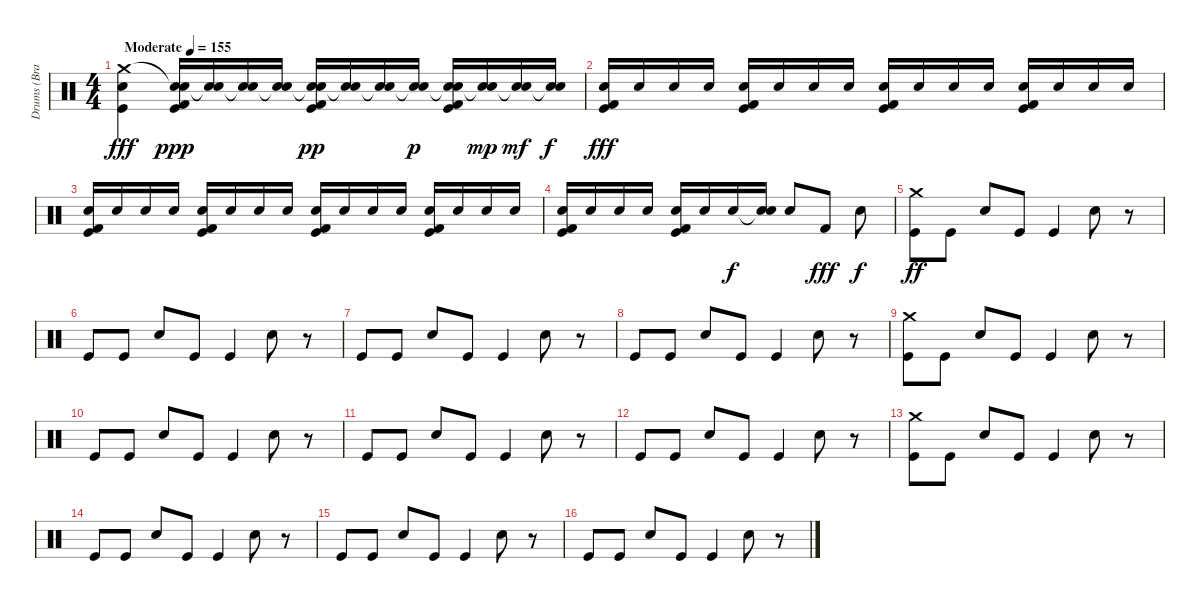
\track ("Drums (Bradie Webb)" "Drums (Bra") {instrument percussion}
\staff {score}
\articulation defaults
\ts (4 4)
\tempo (155 "Moderate")
\clef neutral
\ks c
("Crash medium (hit)" "Kick (hit)" "Snare (hit) 2").4{dy fff} ("Snare (hit)"{t} "Kick (hit) 2" "Kick (hit)" "Snare (hit) 2").16{dy ppp volume 5} ("Snare (hit)"{t} "Snare (hit) 2").16{volume 10} ("Snare (hit)"{t} "Snare (hit) 2").16 ("Snare (hit)"{t} "Snare (hit) 2").16 ("Snare (hit)"{t} "Kick (hit) 2" "Kick (hit)" "Snare (hit) 2").16{dy pp} ("Snare (hit)"{t} "Snare (hit) 2").16 ("Snare (hit)"{t} "Snare (hit) 2").16 ("Snare (hit)"{t} "Snare (hit) 2").16{dy p} ("Snare (hit)"{t} "Kick (hit) 2" "Kick (hit)" "Snare (hit) 2").16 ("Snare (hit)"{t} "Snare (hit) 2").16{dy mp} ("Snare (hit)"{t} "Snare (hit) 2").16{dy mf} ("Snare (hit)"{t} "Snare (hit) 2").16{dy f} |
("Kick (hit) 2" "Kick (hit)" "Snare (hit) 2").16{dy fff} "Snare (hit) 2".16 "Snare (hit) 2".16 "Snare (hit) 2".16 ("Kick (hit) 2" "Kick (hit)" "Snare (hit) 2").16 "Snare (hit) 2".16 "Snare (hit) 2".16 "Snare (hit) 2".16 ("Kick (hit) 2" "Kick (hit)" "Snare (hit) 2").16 "Snare (hit) 2".16 "Snare (hit) 2".16 "Snare (hit) 2".16 ("Kick (hit) 2" "Kick (hit)" "Snare (hit) 2").16 "Snare (hit) 2".16 "Snare (hit) 2".16 "Snare (hit) 2".16 |
("Kick (hit) 2" "Kick (hit)" "Snare (hit) 2").16 "Snare (hit) 2".16 "Snare (hit) 2".16 "Snare (hit) 2".16 ("Kick (hit) 2" "Kick (hit)" "Snare (hit) 2").16 "Snare (hit) 2".16 "Snare (hit) 2".16 "Snare (hit) 2".16 ("Kick (hit) 2" "Kick (hit)" "Snare (hit) 2").16 "Snare (hit) 2".16 "Snare (hit) 2".16 "Snare (hit) 2".16 ("Kick (hit) 2" "Kick (hit)" "Snare (hit) 2").16 "Snare (hit) 2".16 "Snare (hit) 2".16 "Snare (hit) 2".16 |
("Kick (hit) 2" "Kick (hit)" "Snare (hit) 2").16 "Snare (hit) 2".16 "Snare (hit) 2".16 "Snare (hit) 2".16 ("Kick (hit) 2" "Kick (hit)" "Snare (hit) 2").16 "Snare (hit) 2".16 "Snare (hit) 2".16{dy f} ("Snare (hit)"{t} "Snare (hit) 2").16 "Snare (hit) 2".8 "Kick (hit) 2".8{dy fff} "Snare (hit) 2".8{dy f} |
("Crash medium (hit)" "Kick (hit)").8{dy ff} "Kick (hit)".8 "Snare (hit) 2".8 "Kick (hit)".8 "Kick (hit)".4 "Snare (hit) 2".8 r.8 |
"Kick (hit)".8 "Kick (hit)".8 "Snare (hit) 2".8 "Kick (hit)".8 "Kick (hit)".4 "Snare (hit) 2".8 r.8 |
"Kick (hit)".8 "Kick (hit)".8 "Snare (hit) 2".8 "Kick (hit)".8 "Kick (hit)".4 "Snare (hit) 2".8 r.8 |
"Kick (hit)".8 "Kick (hit)".8 "Snare (hit) 2".8 "Kick (hit)".8 "Kick (hit)".4 "Snare (hit) 2".8 r.8 |
("Crash medium (hit)" "Kick (hit)").8 "Kick (hit)".8 "Snare (hit) 2".8 "Kick (hit)".8 "Kick (hit)".4 "Snare (hit) 2".8 r.8 |
"Kick (hit)".8 "Kick (hit)".8 "Snare (hit) 2".8 "Kick (hit)".8 "Kick (hit)".4 "Snare (hit) 2".8 r.8 |
"Kick (hit)".8 "Kick (hit)".8 "Snare (hit) 2".8 "Kick (hit)".8 "Kick (hit)".4 "Snare (hit) 2".8 r.8 |
"Kick (hit)".8 "Kick (hit)".8 "Snare (hit) 2".8 "Kick (hit)".8 "Kick (hit)".4 "Snare (hit) 2".8 r.8 |
("Crash medium (hit)" "Kick (hit)").8 "Kick (hit)".8 "Snare (hit) 2".8 "Kick (hit)".8 "Kick (hit)".4 "Snare (hit) 2".8 r.8 |
"Kick (hit)".8 "Kick (hit)".8 "Snare (hit) 2".8 "Kick (hit)".8 "Kick (hit)".4 "Snare (hit) 2".8 r.8 |
"Kick (hit)".8 "Kick (hit)".8 "Snare (hit) 2".8 "Kick (hit)".8 "Kick (hit)".4 "Snare (hit) 2".8 r.8 |
"Kick (hit)".8 "Kick (hit)".8 "Snare (hit) 2".8 "Kick (hit)".8 "Kick (hit)".4 "Snare (hit) 2".8 r.8
